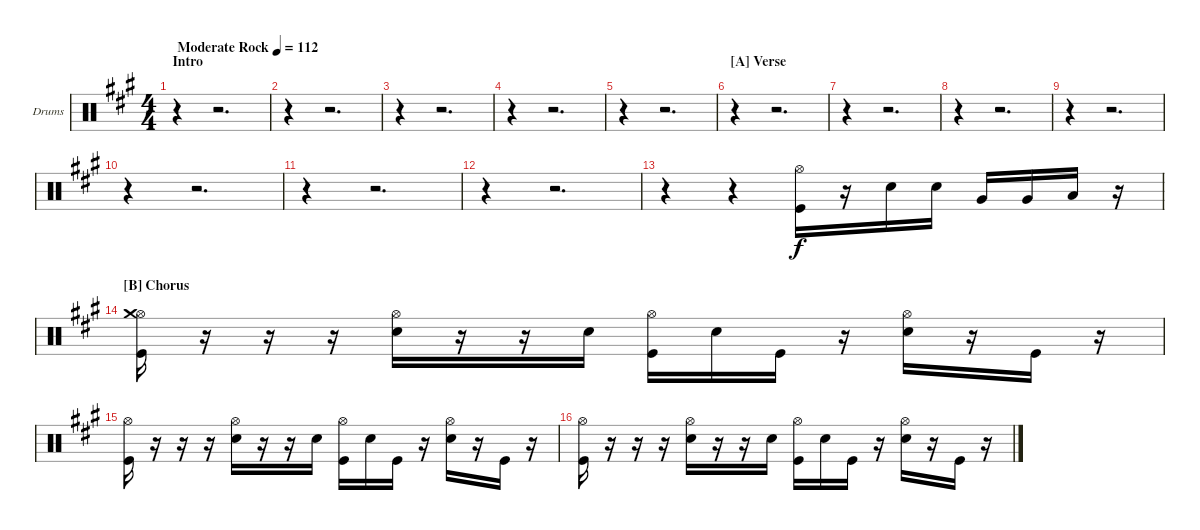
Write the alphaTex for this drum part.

\defaultSystemsLayout 4
\bracketExtendMode groupsimilarinstruments
\firstSystemTrackNameOrientation horizontal
\otherSystemsTrackNameOrientation horizontal
\track ("Drumkit" "Drums") {instrument percussion}
\staff {score}
\articulation defaults
\ts (4 4)
\section ("" "Intro")
\tempo (112 "Moderate Rock")
\clef neutral
\scale
1.08827
\ks a
r.4{dy f} r.2{d} |
\scale
0.911728 r.4 r.2{d} |
\scale
1.05801 r.4 r.2{d} |
\scale
0.941992 r.4 r.2{d} |
\scale
1.05801 r.4 r.2{d} |
\section ("A" "Verse")
\scale
0.941992 r.4 r.2{d} |
\scale
1.05801 r.4 r.2{d} |
\scale
0.941992 r.4 r.2{d} |
\scale
1.05801 r.4 r.2{d} |
\scale
0.941992 r.4 r.2{d} |
\scale
1.05801 r.4 r.2{d} |
\scale
0.941992 r.4 r.2{d} |
\scale
1.05801 r.4 r.4 ("Hi-Hat (open)" "Kick (hit)").16 r.16 "Snare (hit) 2".16 "Snare (hit) 2".16 "Very Low Tom (hit)".16 "Very Low Tom (hit)".16 "Low Tom (hit)".16 r.16 |
\section ("B" "Chorus")
\scale
0.941992 ("Hi-Hat (open)" "Kick (hit)" "Crash medium (hit)").16 r.16 r.16 r.16 ("Hi-Hat (open)" "Snare (hit) 2").16 r.16 r.16 "Snare (hit) 2".16 ("Hi-Hat (open)" "Kick (hit)").16 "Snare (hit) 2".16 "Kick (hit)".16 r.16 ("Hi-Hat (open)" "Snare (hit) 2").16 r.16 "Kick (hit)".16 r.16 |
\scale
1.05801 ("Hi-Hat (open)" "Kick (hit)").16 r.16 r.16 r.16 ("Hi-Hat (open)" "Snare (hit) 2").16 r.16 r.16 "Snare (hit) 2".16 ("Hi-Hat (open)" "Kick (hit)").16 "Snare (hit) 2".16 "Kick (hit)".16 r.16 ("Hi-Hat (open)" "Snare (hit) 2").16 r.16 "Kick (hit)".16 r.16 |
\scale
0.941992 ("Hi-Hat (open)" "Kick (hit)").16 r.16 r.16 r.16 ("Hi-Hat (open)" "Snare (hit) 2").16 r.16 r.16 "Snare (hit) 2".16 ("Hi-Hat (open)" "Kick (hit)").16 "Snare (hit) 2".16 "Kick (hit)".16 r.16 ("Hi-Hat (open)" "Snare (hit) 2").16 r.16 "Kick (hit)".16 r.16
